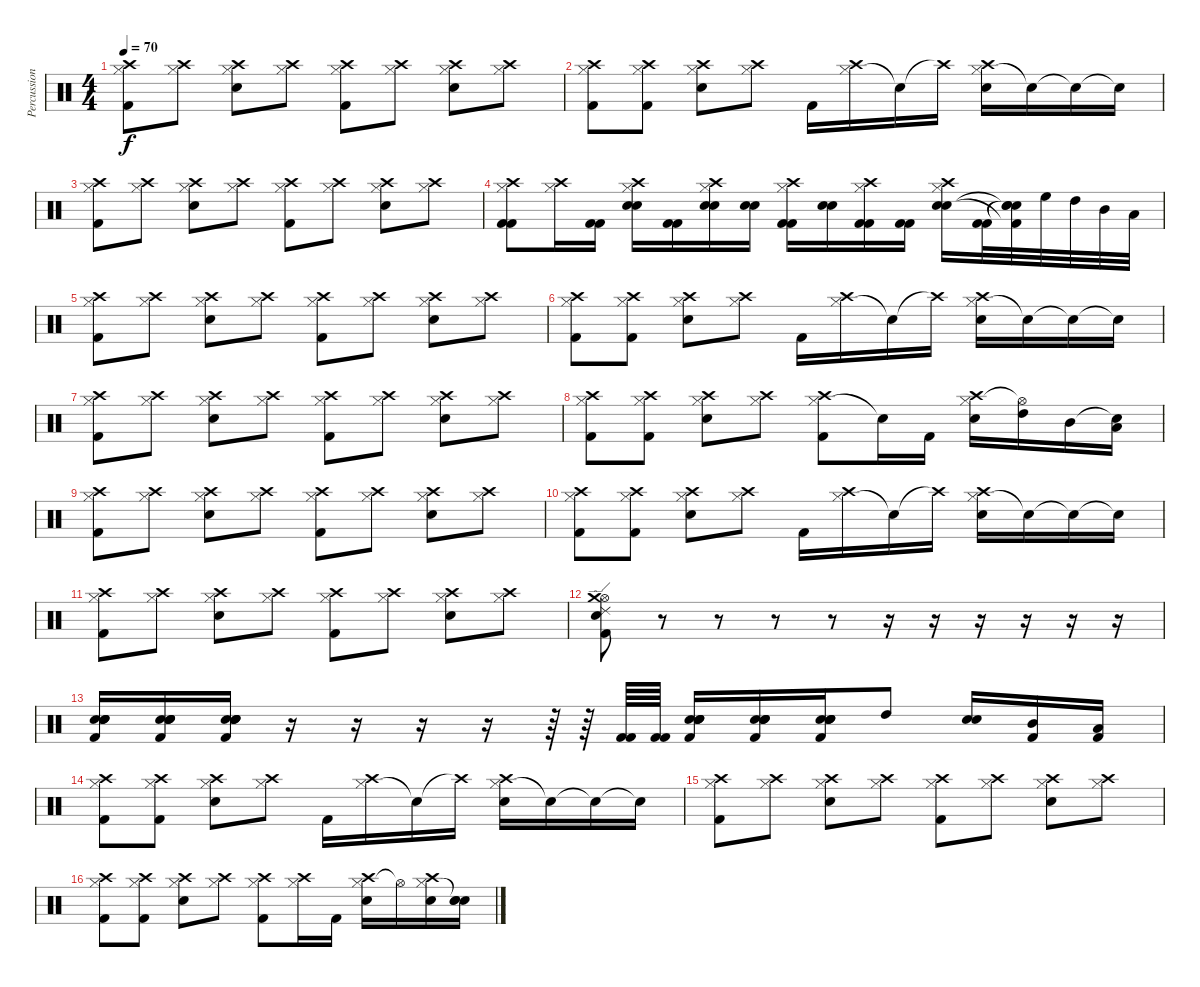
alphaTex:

\track ("Percussion" "Percussion") {instrument percussion}
\staff {score}
\articulation defaults
\ts (4 4)
\tempo 70
\clef neutral
\ks c
("Hi-Hat (closed)" "Crash high (hit)" "Kick (hit) 2").8{dy f} ("Hi-Hat (closed)" "Crash high (hit)").8 ("Hi-Hat (closed)" "Snare (hit) 2" "Crash high (hit)").8 ("Hi-Hat (closed)" "Crash high (hit)").8 ("Hi-Hat (closed)" "Crash high (hit)" "Kick (hit) 2").8 ("Hi-Hat (closed)" "Crash high (hit)").8 ("Hi-Hat (closed)" "Snare (hit) 2" "Crash high (hit)").8 ("Hi-Hat (closed)" "Crash high (hit)").8 |
("Hi-Hat (closed)" "Crash high (hit)" "Kick (hit) 2").8 ("Hi-Hat (closed)" "Crash high (hit)" "Kick (hit) 2").8 ("Hi-Hat (closed)" "Snare (hit) 2" "Crash high (hit)").8 ("Hi-Hat (closed)" "Crash high (hit)").8 "Kick (hit) 2".16 ("Hi-Hat (closed)" "Crash high (hit)").16 "Snare (hit) 2"{t}.16 "Crash high (hit)"{t}.16 ("Hi-Hat (closed)" "Crash high (hit)" "Snare (hit) 2").16 "Snare (hit)"{t}.16 "Snare (hit)"{t}.16 "Snare (hit)"{t}.16 |
("Hi-Hat (closed)" "Crash high (hit)" "Kick (hit) 2").8 ("Hi-Hat (closed)" "Crash high (hit)").8 ("Hi-Hat (closed)" "Snare (hit) 2" "Crash high (hit)").8 ("Hi-Hat (closed)" "Crash high (hit)").8 ("Hi-Hat (closed)" "Crash high (hit)" "Kick (hit) 2").8 ("Hi-Hat (closed)" "Crash high (hit)").8 ("Hi-Hat (closed)" "Snare (hit) 2" "Crash high (hit)").8 ("Hi-Hat (closed)" "Crash high (hit)").8 |
("Hi-Hat (closed)" "Crash high (hit)" "Kick (hit) 2" "Kick (hit) 2").8 ("Hi-Hat (closed)" "Crash high (hit)").16 ("Kick (hit) 2" "Kick (hit) 2").16 ("Hi-Hat (closed)" "Crash high (hit)" "Snare (hit) 2" "Snare (hit) 2").16 ("Kick (hit) 2" "Kick (hit) 2").16 ("Hi-Hat (closed)" "Crash high (hit)" "Snare (hit) 2" "Snare (hit) 2").16 ("Snare (hit) 2" "Snare (hit) 2").16 ("Hi-Hat (closed)" "Crash high (hit)" "Kick (hit) 2" "Kick (hit) 2").16 ("Snare (hit) 2" "Snare (hit) 2").16 ("Hi-Hat (closed)" "Crash high (hit)" "Kick (hit) 2" "Kick (hit) 2").16 ("Kick (hit) 2" "Kick (hit) 2").16 ("Hi-Hat (closed)" "Crash high (hit)" "Snare (hit) 2" "Snare (hit) 2").16 ("Kick (hit) 2" "Kick (hit) 2").32 ("Snare (hit)"{t} "Snare (hit)"{t} "Snare (hit)"{t} "Kick (hit) 2"{t}).32 "High Floor Tom (hit)".32 "High Tom (hit)".32 "Mid Tom (hit)".32 "Low Tom (hit)".32 |
("Hi-Hat (closed)" "Crash high (hit)" "Kick (hit) 2").8 ("Hi-Hat (closed)" "Crash high (hit)").8 ("Hi-Hat (closed)" "Snare (hit) 2" "Crash high (hit)").8 ("Hi-Hat (closed)" "Crash high (hit)").8 ("Hi-Hat (closed)" "Crash high (hit)" "Kick (hit) 2").8 ("Hi-Hat (closed)" "Crash high (hit)").8 ("Hi-Hat (closed)" "Snare (hit) 2" "Crash high (hit)").8 ("Hi-Hat (closed)" "Crash high (hit)").8 |
("Hi-Hat (closed)" "Crash high (hit)" "Kick (hit) 2").8 ("Hi-Hat (closed)" "Crash high (hit)" "Kick (hit) 2").8 ("Hi-Hat (closed)" "Snare (hit) 2" "Crash high (hit)").8 ("Hi-Hat (closed)" "Crash high (hit)").8 "Kick (hit) 2".16 ("Hi-Hat (closed)" "Crash high (hit)").16 "Snare (hit) 2"{t}.16 "Crash high (hit)"{t}.16 ("Hi-Hat (closed)" "Crash high (hit)" "Snare (hit) 2").16 "Snare (hit)"{t}.16 "Snare (hit)"{t}.16 "Snare (hit)"{t}.16 |
("Hi-Hat (closed)" "Crash high (hit)" "Kick (hit) 2").8 ("Hi-Hat (closed)" "Crash high (hit)").8 ("Hi-Hat (closed)" "Snare (hit) 2" "Crash high (hit)").8 ("Hi-Hat (closed)" "Crash high (hit)").8 ("Hi-Hat (closed)" "Crash high (hit)" "Kick (hit) 2").8 ("Hi-Hat (closed)" "Crash high (hit)").8 ("Hi-Hat (closed)" "Snare (hit) 2" "Crash high (hit)").8 ("Hi-Hat (closed)" "Crash high (hit)").8 |
("Hi-Hat (closed)" "Crash high (hit)" "Kick (hit) 2").8 ("Hi-Hat (closed)" "Crash high (hit)" "Kick (hit) 2").8 ("Hi-Hat (closed)" "Snare (hit) 2" "Crash high (hit)").8 ("Hi-Hat (closed)" "Crash high (hit)").8 ("Hi-Hat (closed)" "Crash high (hit)" "Kick (hit) 2").8 "Snare (hit)"{t}.16 "Kick (hit) 2".16 ("Hi-Hat (closed)" "Snare (hit) 2" "Crash high (hit)").16 ("Hi-Hat (open)"{t} "High Tom (hit)").16 "Mid Tom (hit)".16 ("Snare (hit)"{t} "Low Tom (hit)").16 |
("Hi-Hat (closed)" "Crash high (hit)" "Kick (hit) 2").8 ("Hi-Hat (closed)" "Crash high (hit)").8 ("Hi-Hat (closed)" "Snare (hit) 2" "Crash high (hit)").8 ("Hi-Hat (closed)" "Crash high (hit)").8 ("Hi-Hat (closed)" "Crash high (hit)" "Kick (hit) 2").8 ("Hi-Hat (closed)" "Crash high (hit)").8 ("Hi-Hat (closed)" "Snare (hit) 2" "Crash high (hit)").8 ("Hi-Hat (closed)" "Crash high (hit)").8 |
("Hi-Hat (closed)" "Crash high (hit)" "Kick (hit) 2").8 ("Hi-Hat (closed)" "Crash high (hit)" "Kick (hit) 2").8 ("Hi-Hat (closed)" "Snare (hit) 2" "Crash high (hit)").8 ("Hi-Hat (closed)" "Crash high (hit)").8 "Kick (hit) 2".16 ("Hi-Hat (closed)" "Crash high (hit)").16 "Snare (hit) 2"{t}.16 "Crash high (hit)"{t}.16 ("Hi-Hat (closed)" "Crash high (hit)" "Snare (hit) 2").16 "Snare (hit)"{t}.16 "Snare (hit)"{t}.16 "Snare (hit)"{t}.16 |
("Hi-Hat (closed)" "Crash high (hit)" "Kick (hit) 2").8 ("Hi-Hat (closed)" "Crash high (hit)").8 ("Hi-Hat (closed)" "Snare (hit) 2" "Crash high (hit)").8 ("Hi-Hat (closed)" "Crash high (hit)").8 ("Hi-Hat (closed)" "Crash high (hit)" "Kick (hit) 2").8 ("Hi-Hat (closed)" "Crash high (hit)").8 ("Hi-Hat (closed)" "Snare (hit) 2" "Crash high (hit)").8 ("Hi-Hat (closed)" "Crash high (hit)").8 |
("Hi-Hat (open)" "Snare (hit) 2" "Kick (hit) 2" "Ride (edge) 2" "Crash medium (hit)").8 r.8 r.8 r.8 r.8 r.16 r.16 r.16 r.16 r.16 r.16 |
("Electric Snare (hit)" "Electric Snare (hit)" "Electric Snare (hit)" "Electric Snare (hit)" "Kick (hit) 2").16 ("Electric Snare (hit)" "Electric Snare (hit)" "Electric Snare (hit)" "Electric Snare (hit)" "Kick (hit) 2").16 ("Electric Snare (hit)" "Electric Snare (hit)" "Electric Snare (hit)" "Electric Snare (hit)" "Kick (hit) 2").16 r.16 r.16 r.16 r.16 r.64 r.64 ("Kick (hit) 2" "Kick (hit) 2").64 ("Kick (hit) 2" "Kick (hit) 2").64 ("Electric Snare (hit)" "Electric Snare (hit)" "Electric Snare (hit)" "Electric Snare (hit)" "Kick (hit) 2").16 ("Electric Snare (hit)" "Electric Snare (hit)" "Electric Snare (hit)" "Electric Snare (hit)" "Kick (hit) 2").16 ("Electric Snare (hit)" "Electric Snare (hit)" "Electric Snare (hit)" "Electric Snare (hit)" "Kick (hit) 2").16 "High Tom (hit)".8 ("Snare (hit) 2" "Snare (hit) 2").16 ("Mid Tom (hit)" "Kick (hit) 2").16 ("Low Tom (hit)" "Kick (hit) 2").16 |
("Hi-Hat (closed)" "Crash high (hit)" "Kick (hit) 2").8 ("Hi-Hat (closed)" "Crash high (hit)" "Kick (hit) 2").8 ("Hi-Hat (closed)" "Snare (hit) 2" "Crash high (hit)").8 ("Hi-Hat (closed)" "Crash high (hit)").8 "Kick (hit) 2".16 ("Hi-Hat (closed)" "Crash high (hit)").16 "Snare (hit) 2"{t}.16 "Crash high (hit)"{t}.16 ("Hi-Hat (closed)" "Crash high (hit)" "Snare (hit) 2").16 "Snare (hit)"{t}.16 "Snare (hit)"{t}.16 "Snare (hit)"{t}.16 |
("Hi-Hat (closed)" "Crash high (hit)" "Kick (hit) 2").8 ("Hi-Hat (closed)" "Crash high (hit)").8 ("Hi-Hat (closed)" "Snare (hit) 2" "Crash high (hit)").8 ("Hi-Hat (closed)" "Crash high (hit)").8 ("Hi-Hat (closed)" "Crash high (hit)" "Kick (hit) 2").8 ("Hi-Hat (closed)" "Crash high (hit)").8 ("Hi-Hat (closed)" "Snare (hit) 2" "Crash high (hit)").8 ("Hi-Hat (closed)" "Crash high (hit)").8 |
("Hi-Hat (closed)" "Crash high (hit)" "Kick (hit) 2").8 ("Hi-Hat (closed)" "Crash high (hit)" "Kick (hit) 2").8 ("Hi-Hat (closed)" "Snare (hit) 2" "Crash high (hit)").8 ("Hi-Hat (closed)" "Crash high (hit)").8 ("Hi-Hat (closed)" "Crash high (hit)" "Kick (hit) 2").8 ("Hi-Hat (closed)" "Crash high (hit)").16 "Kick (hit) 2".16 ("Hi-Hat (closed)" "Snare (hit) 2" "Crash high (hit)").16 "Hi-Hat (open)"{t}.16 ("Hi-Hat (closed)" "Crash high (hit)" "Snare (hit) 2").16 ("Snare (hit)"{t} "Snare (hit) 2" "Snare (hit) 2").16
